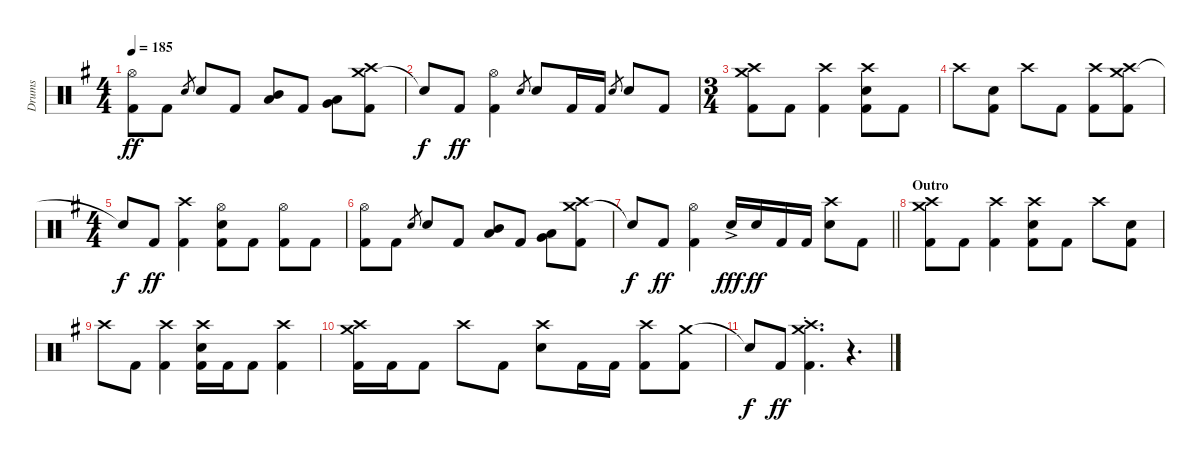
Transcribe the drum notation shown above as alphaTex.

\track ("Drums" "Drums") {instrument percussion}
\staff {score}
\articulation defaults
\ts (4 4)
\tempo 185
\clef neutral
\ks g
("Hi-Hat (open)" "Kick (hit) 2").8{dy ff} "Kick (hit) 2".8 "Electric Snare (hit)".8{gr} "Electric Snare (hit)".8 "Kick (hit) 2".8 ("Mid Tom (hit)" "Low Tom (hit)").8{bu 60} "Kick (hit) 2".8 ("Low Tom (hit)" "Very Low Tom (hit)").8{bu 60} ("Crash medium (hit)" "Crash high (hit)" "Kick (hit) 2").8 |
"Snare (hit)"{t}.8{dy f} "Kick (hit) 2".8{dy ff} ("Hi-Hat (open)" "Kick (hit) 2").4 "Electric Snare (hit)".8{gr} "Electric Snare (hit)".8 "Kick (hit) 2".16 "Kick (hit) 2".16 "Electric Snare (hit)".8{gr} "Electric Snare (hit)".8 "Kick (hit) 2".8 |
\ts (3 4)
("Crash medium (hit)" "Crash high (hit)" "Kick (hit) 2").8 "Kick (hit) 2".8 ("Crash high (hit)" "Kick (hit) 2").4 ("Crash high (hit)" "Electric Snare (hit)" "Kick (hit) 2").8 "Kick (hit) 2".8 |
"Crash high (hit)".8 ("Electric Snare (hit)" "Kick (hit) 2").8 "Crash high (hit)".8 "Kick (hit) 2".8 ("Crash high (hit)" "Kick (hit) 2").8 ("Crash medium (hit)" "Crash high (hit)" "Kick (hit) 2").8 |
\ts (4 4)
"Snare (hit)"{t}.8{dy f} "Kick (hit) 2".8{dy ff} ("Crash high (hit)" "Kick (hit) 2").4 ("Hi-Hat (open)" "Electric Snare (hit)" "Kick (hit) 2").8 "Kick (hit) 2".8 ("Hi-Hat (open)" "Kick (hit) 2").8 "Kick (hit) 2".8 |
("Hi-Hat (open)" "Kick (hit) 2").8 "Kick (hit) 2".8 "Electric Snare (hit)".8{gr} "Electric Snare (hit)".8 "Kick (hit) 2".8 ("Mid Tom (hit)" "Low Tom (hit)").8{bu 60} "Kick (hit) 2".8 ("Low Tom (hit)" "Very Low Tom (hit)").8{bu 60} ("Crash medium (hit)" "Crash high (hit)" "Kick (hit) 2").8 |
\barLineRight lightlight "Snare (hit)"{t}.8{dy f} "Kick (hit) 2".8{dy ff}
("Hi-Hat (open)" "Kick (hit) 2").4 "Electric Snare (hit)"{ac}.16{dy fff} "Electric Snare (hit)".16{dy ff} "Kick (hit) 2".16 "Kick (hit) 2".16 ("Crash high (hit)" "Electric Snare (hit)").8 "Kick (hit) 2".8 |
\section ("" "Outro")
("Crash medium (hit)" "Crash high (hit)" "Kick (hit) 2").8 "Kick (hit) 2".8 ("Crash high (hit)" "Kick (hit) 2").4 ("Crash high (hit)" "Electric Snare (hit)" "Kick (hit) 2").8 "Kick (hit) 2".8 "Crash high (hit)".8 ("Electric Snare (hit)" "Kick (hit) 2").8 |
"Crash high (hit)".8 "Kick (hit) 2".8 ("Crash high (hit)" "Kick (hit) 2").4 ("Crash high (hit)" "Electric Snare (hit)" "Kick (hit) 2").16 "Kick (hit) 2".16 "Kick (hit) 2".8 ("Crash high (hit)" "Kick (hit) 2").4 |
("Crash medium (hit)" "Crash high (hit)" "Kick (hit) 2").16 "Kick (hit) 2".16 "Kick (hit) 2".8 "Crash high (hit)".8 "Kick (hit) 2".8 ("Crash high (hit)" "Electric Snare (hit)").8 "Kick (hit) 2".16 "Kick (hit) 2".16 ("Crash high (hit)" "Kick (hit) 2").8 ("Crash medium (hit)" "Kick (hit) 2").8 |
"Snare (hit)"{t}.8{dy f} "Kick (hit) 2".8{dy ff} ("Crash medium (hit)"{st} "Crash high (hit)"{st} "Kick (hit) 2").4{d} r.4{d volume 0}
